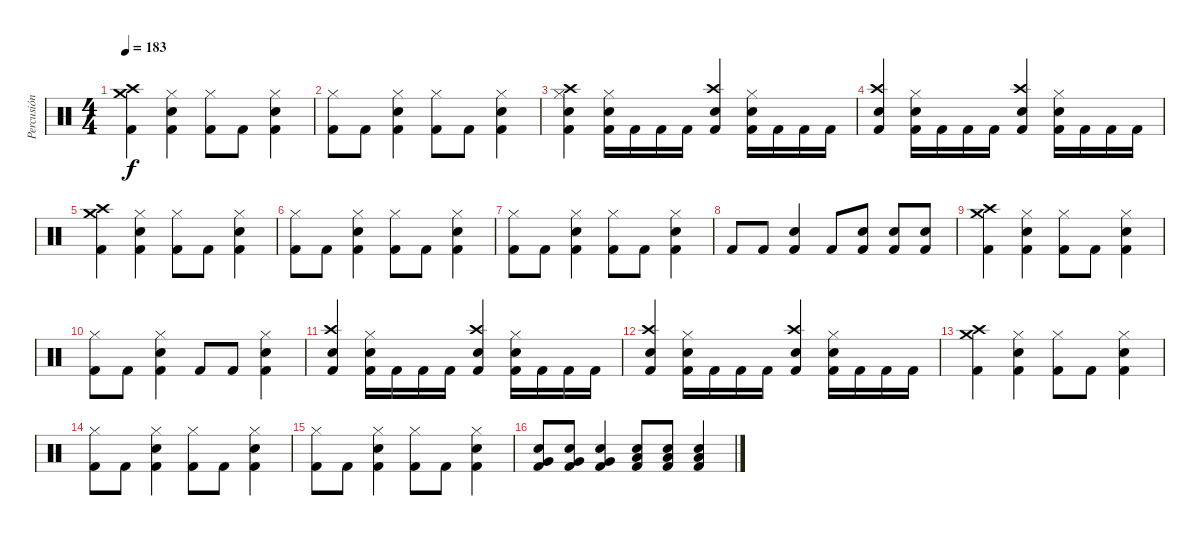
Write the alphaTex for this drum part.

\track ("Percusión" "Percusión") {instrument percussion}
\staff {score}
\articulation defaults
\ts (4 4)
\tempo 183
\clef neutral
\ks c
("Kick (hit) 2" "Crash medium (hit)" "Crash high (hit)").4{dy f} ("Kick (hit) 2" "Electric Snare (hit)" "Hi-Hat (closed)").4 ("Kick (hit) 2" "Hi-Hat (closed)").8 "Kick (hit) 2".8 ("Kick (hit) 2" "Electric Snare (hit)" "Hi-Hat (closed)").4 |
("Kick (hit) 2" "Hi-Hat (closed)").8 "Kick (hit) 2".8 ("Kick (hit) 2" "Electric Snare (hit)" "Hi-Hat (closed)").4 ("Kick (hit) 2" "Hi-Hat (closed)").8 "Kick (hit) 2".8 ("Kick (hit) 2" "Electric Snare (hit)" "Hi-Hat (closed)").4 |
("Kick (hit) 2" "Electric Snare (hit)" "Hi-Hat (closed)" "Crash high (hit)").4 ("Kick (hit) 2" "Electric Snare (hit)" "Hi-Hat (closed)").16 "Kick (hit) 2".16 "Kick (hit) 2".16 "Kick (hit) 2".16 ("Kick (hit) 2" "Electric Snare (hit)" "Crash high (hit)").4 ("Kick (hit) 2" "Electric Snare (hit)" "Hi-Hat (closed)").16 "Kick (hit) 2".16 "Kick (hit) 2".16 "Kick (hit) 2".16 |
("Kick (hit) 2" "Electric Snare (hit)" "Crash high (hit)").4 ("Kick (hit) 2" "Electric Snare (hit)" "Hi-Hat (closed)").16 "Kick (hit) 2".16 "Kick (hit) 2".16 "Kick (hit) 2".16 ("Kick (hit) 2" "Electric Snare (hit)" "Crash high (hit)").4 ("Kick (hit) 2" "Electric Snare (hit)" "Hi-Hat (closed)").16 "Kick (hit) 2".16 "Kick (hit) 2".16 "Kick (hit) 2".16 |
("Kick (hit) 2" "Crash medium (hit)" "Crash high (hit)").4 ("Kick (hit) 2" "Electric Snare (hit)" "Hi-Hat (closed)").4 ("Kick (hit) 2" "Hi-Hat (closed)").8 "Kick (hit) 2".8 ("Kick (hit) 2" "Electric Snare (hit)" "Hi-Hat (closed)").4 |
("Kick (hit) 2" "Hi-Hat (closed)").8 "Kick (hit) 2".8 ("Kick (hit) 2" "Electric Snare (hit)" "Hi-Hat (closed)").4 ("Kick (hit) 2" "Hi-Hat (closed)").8 "Kick (hit) 2".8 ("Kick (hit) 2" "Electric Snare (hit)" "Hi-Hat (closed)").4 |
("Kick (hit) 2" "Hi-Hat (closed)").8 "Kick (hit) 2".8 ("Kick (hit) 2" "Electric Snare (hit)" "Hi-Hat (closed)").4 ("Kick (hit) 2" "Hi-Hat (closed)").8 "Kick (hit) 2".8 ("Kick (hit) 2" "Electric Snare (hit)" "Hi-Hat (closed)").4 |
"Kick (hit) 2".8 "Kick (hit) 2".8 ("Kick (hit) 2" "Electric Snare (hit)").4 "Kick (hit) 2".8 ("Kick (hit) 2" "Electric Snare (hit)").8 ("Kick (hit) 2" "Electric Snare (hit)").8 ("Kick (hit) 2" "Electric Snare (hit)").8 |
("Kick (hit) 2" "Crash medium (hit)" "Crash high (hit)").4 ("Kick (hit) 2" "Electric Snare (hit)" "Hi-Hat (closed)").4 ("Kick (hit) 2" "Hi-Hat (closed)").8 "Kick (hit) 2".8 ("Kick (hit) 2" "Electric Snare (hit)" "Hi-Hat (closed)").4 |
("Kick (hit) 2" "Hi-Hat (closed)").8 "Kick (hit) 2".8 ("Kick (hit) 2" "Electric Snare (hit)" "Hi-Hat (closed)").4 "Kick (hit) 2".8 "Kick (hit) 2".8 ("Kick (hit) 2" "Electric Snare (hit)" "Hi-Hat (closed)").4 |
("Kick (hit) 2" "Electric Snare (hit)" "Crash high (hit)").4 ("Kick (hit) 2" "Electric Snare (hit)" "Hi-Hat (closed)").16 "Kick (hit) 2".16 "Kick (hit) 2".16 "Kick (hit) 2".16 ("Kick (hit) 2" "Electric Snare (hit)" "Crash high (hit)").4 ("Kick (hit) 2" "Electric Snare (hit)" "Hi-Hat (closed)").16 "Kick (hit) 2".16 "Kick (hit) 2".16 "Kick (hit) 2".16 |
("Kick (hit) 2" "Electric Snare (hit)" "Crash high (hit)").4 ("Kick (hit) 2" "Electric Snare (hit)" "Hi-Hat (closed)").16 "Kick (hit) 2".16 "Kick (hit) 2".16 "Kick (hit) 2".16 ("Kick (hit) 2" "Electric Snare (hit)" "Crash high (hit)").4 ("Kick (hit) 2" "Electric Snare (hit)" "Hi-Hat (closed)").16 "Kick (hit) 2".16 "Kick (hit) 2".16 "Kick (hit) 2".16 |
("Kick (hit) 2" "Crash medium (hit)" "Crash high (hit)").4 ("Kick (hit) 2" "Electric Snare (hit)" "Hi-Hat (closed)").4 ("Kick (hit) 2" "Hi-Hat (closed)").8 "Kick (hit) 2".8 ("Kick (hit) 2" "Electric Snare (hit)" "Hi-Hat (closed)").4 |
("Kick (hit) 2" "Hi-Hat (closed)").8 "Kick (hit) 2".8 ("Kick (hit) 2" "Electric Snare (hit)" "Hi-Hat (closed)").4 ("Kick (hit) 2" "Hi-Hat (closed)").8 "Kick (hit) 2".8 ("Kick (hit) 2" "Electric Snare (hit)" "Hi-Hat (closed)").4 |
("Kick (hit) 2" "Hi-Hat (closed)").8 "Kick (hit) 2".8 ("Kick (hit) 2" "Electric Snare (hit)" "Hi-Hat (closed)").4 ("Kick (hit) 2" "Hi-Hat (closed)").8 "Kick (hit) 2".8 ("Kick (hit) 2" "Electric Snare (hit)" "Hi-Hat (closed)").4 |
("Kick (hit) 2" "Electric Snare (hit)" "Very Low Tom (hit)").8 ("Kick (hit) 2" "Electric Snare (hit)" "Very Low Tom (hit)").8 ("Kick (hit) 2" "Electric Snare (hit)" "Very Low Tom (hit)").4 ("Kick (hit) 2" "Electric Snare (hit)" "Low Floor Tom (hit)").8 ("Kick (hit) 2" "Electric Snare (hit)" "Low Floor Tom (hit)").8 ("Kick (hit) 2" "Electric Snare (hit)" "Low Floor Tom (hit)").4
